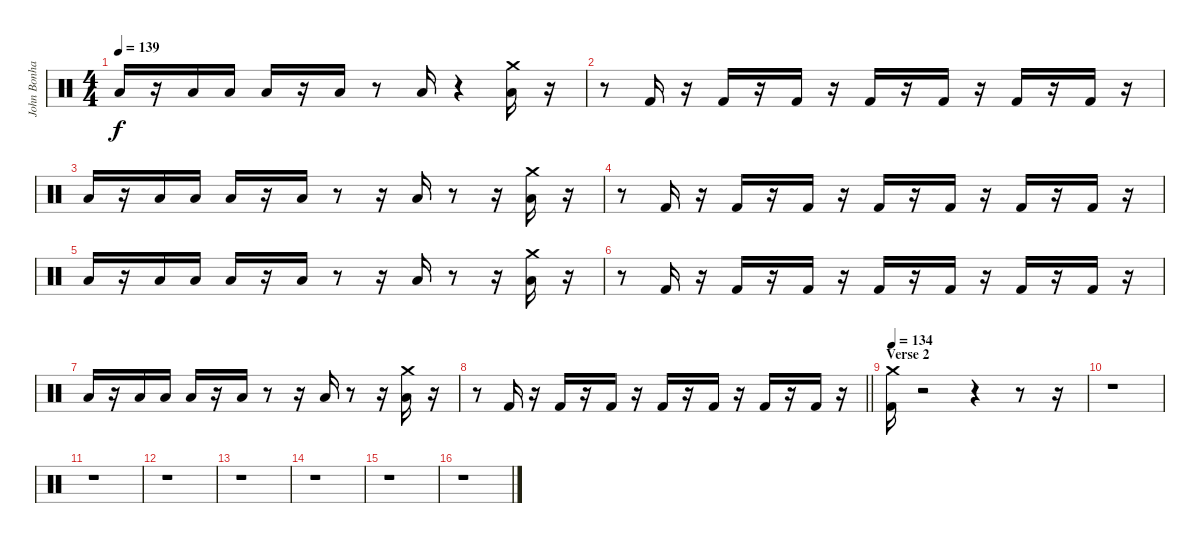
\track ("John Bonham" "John Bonha") {instrument percussion}
\staff {score}
\articulation defaults
\ts (4 4)
\tempo 139
\clef neutral
\ks aminor "Low Floor Tom (hit)".16{dy f}
r.16 "Low Floor Tom (hit)".16 "Low Floor Tom (hit)".16 "Low Floor Tom (hit)".16 r.16 "Low Floor Tom (hit)".16 r.8 "Low Floor Tom (hit)".16 r.4 ("Low Floor Tom (hit)" "Crash medium (hit)").16 r.16 |
r.8 "Kick (hit) 2".16 r.16 "Kick (hit) 2".16 r.16 "Kick (hit) 2".16 r.16 "Kick (hit) 2".16 r.16 "Kick (hit) 2".16 r.16 "Kick (hit) 2".16 r.16 "Kick (hit) 2".16 r.16 |
"Low Floor Tom (hit)".16 r.16 "Low Floor Tom (hit)".16 "Low Floor Tom (hit)".16 "Low Floor Tom (hit)".16 r.16 "Low Floor Tom (hit)".16 r.8 r.16 "Low Floor Tom (hit)".16 r.8 r.16 ("Low Floor Tom (hit)" "Crash medium (hit)").16 r.16 |
r.8 "Kick (hit) 2".16 r.16 "Kick (hit) 2".16 r.16 "Kick (hit) 2".16 r.16 "Kick (hit) 2".16 r.16 "Kick (hit) 2".16 r.16 "Kick (hit) 2".16 r.16 "Kick (hit) 2".16 r.16 |
"Low Floor Tom (hit)".16 r.16 "Low Floor Tom (hit)".16 "Low Floor Tom (hit)".16 "Low Floor Tom (hit)".16 r.16 "Low Floor Tom (hit)".16 r.8 r.16 "Low Floor Tom (hit)".16 r.8 r.16 ("Low Floor Tom (hit)" "Crash medium (hit)").16 r.16 |
r.8 "Kick (hit) 2".16 r.16 "Kick (hit) 2".16 r.16 "Kick (hit) 2".16 r.16 "Kick (hit) 2".16 r.16 "Kick (hit) 2".16 r.16 "Kick (hit) 2".16 r.16 "Kick (hit) 2".16 r.16 |
"Low Floor Tom (hit)".16 r.16 "Low Floor Tom (hit)".16 "Low Floor Tom (hit)".16 "Low Floor Tom (hit)".16 r.16 "Low Floor Tom (hit)".16 r.8 r.16 "Low Floor Tom (hit)".16 r.8 r.16 ("Low Floor Tom (hit)" "Crash medium (hit)").16 r.16 |
\barLineRight lightlight
r.8 "Kick (hit) 2".16 r.16 "Kick (hit) 2".16 r.16 "Kick (hit) 2".16 r.16 "Kick (hit) 2".16 r.16 "Kick (hit) 2".16 r.16 "Kick (hit) 2".16 r.16 "Kick (hit) 2".16 r.16 |
\section ("" "Verse 2")
\tempo 134
("Kick (hit) 2" "Crash medium (hit)").16 r.2 r.4 r.8 r.16 |
r.1 |
r.1 |
r.1 |
r.1 |
r.1 |
r.1 |
r.1
